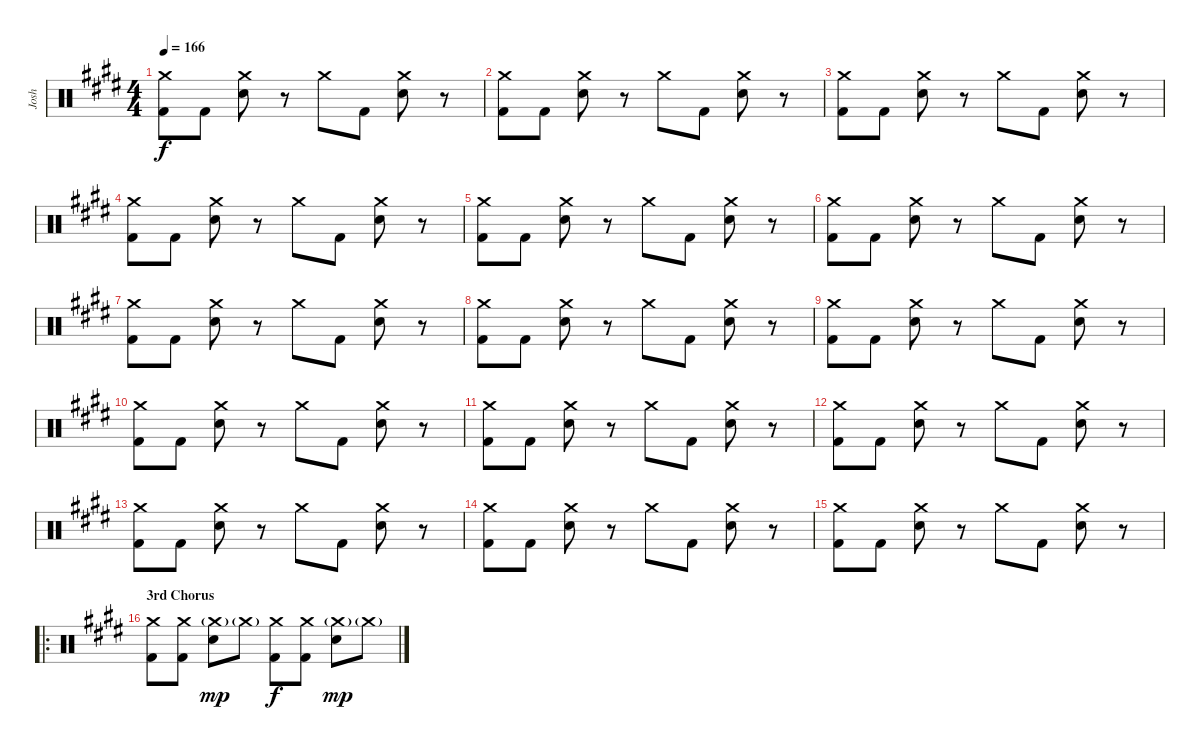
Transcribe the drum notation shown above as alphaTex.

\track ("Josh" "Josh") {instrument percussion}
\staff {score}
\articulation defaults
\ts (4 4)
\tempo 166
\clef neutral
\ks e
("Crash medium (hit)" "Kick (hit) 2").8{dy f} "Kick (hit) 2".8 ("Crash medium (hit)" "Electric Snare (hit)").8 r.8 "Crash medium (hit)".8 "Kick (hit) 2".8 ("Crash medium (hit)" "Electric Snare (hit)").8 r.8 |
("Crash medium (hit)" "Kick (hit) 2").8 "Kick (hit) 2".8 ("Crash medium (hit)" "Electric Snare (hit)").8 r.8 "Crash medium (hit)".8 "Kick (hit) 2".8 ("Crash medium (hit)" "Electric Snare (hit)").8 r.8 |
("Crash medium (hit)" "Kick (hit) 2").8 "Kick (hit) 2".8 ("Crash medium (hit)" "Electric Snare (hit)").8 r.8 "Crash medium (hit)".8 "Kick (hit) 2".8 ("Crash medium (hit)" "Electric Snare (hit)").8 r.8 |
("Crash medium (hit)" "Kick (hit) 2").8 "Kick (hit) 2".8 ("Crash medium (hit)" "Electric Snare (hit)").8 r.8 "Crash medium (hit)".8 "Kick (hit) 2".8 ("Crash medium (hit)" "Electric Snare (hit)").8 r.8 |
("Crash medium (hit)" "Kick (hit) 2").8 "Kick (hit) 2".8 ("Crash medium (hit)" "Electric Snare (hit)").8 r.8 "Crash medium (hit)".8 "Kick (hit) 2".8 ("Crash medium (hit)" "Electric Snare (hit)").8 r.8 |
("Crash medium (hit)" "Kick (hit) 2").8 "Kick (hit) 2".8 ("Crash medium (hit)" "Electric Snare (hit)").8 r.8 "Crash medium (hit)".8 "Kick (hit) 2".8 ("Crash medium (hit)" "Electric Snare (hit)").8 r.8 |
("Crash medium (hit)" "Kick (hit) 2").8 "Kick (hit) 2".8 ("Crash medium (hit)" "Electric Snare (hit)").8 r.8 "Crash medium (hit)".8 "Kick (hit) 2".8 ("Crash medium (hit)" "Electric Snare (hit)").8 r.8 |
("Crash medium (hit)" "Kick (hit) 2").8 "Kick (hit) 2".8 ("Crash medium (hit)" "Electric Snare (hit)").8 r.8 "Crash medium (hit)".8 "Kick (hit) 2".8 ("Crash medium (hit)" "Electric Snare (hit)").8 r.8 |
("Crash medium (hit)" "Kick (hit) 2").8 "Kick (hit) 2".8 ("Crash medium (hit)" "Electric Snare (hit)").8 r.8 "Crash medium (hit)".8 "Kick (hit) 2".8 ("Crash medium (hit)" "Electric Snare (hit)").8 r.8 |
("Crash medium (hit)" "Kick (hit) 2").8 "Kick (hit) 2".8 ("Crash medium (hit)" "Electric Snare (hit)").8 r.8 "Crash medium (hit)".8 "Kick (hit) 2".8 ("Crash medium (hit)" "Electric Snare (hit)").8 r.8 |
("Crash medium (hit)" "Kick (hit) 2").8 "Kick (hit) 2".8 ("Crash medium (hit)" "Electric Snare (hit)").8 r.8 "Crash medium (hit)".8 "Kick (hit) 2".8 ("Crash medium (hit)" "Electric Snare (hit)").8 r.8 |
("Crash medium (hit)" "Kick (hit) 2").8 "Kick (hit) 2".8 ("Crash medium (hit)" "Electric Snare (hit)").8 r.8 "Crash medium (hit)".8 "Kick (hit) 2".8 ("Crash medium (hit)" "Electric Snare (hit)").8 r.8 |
("Crash medium (hit)" "Kick (hit) 2").8 "Kick (hit) 2".8 ("Crash medium (hit)" "Electric Snare (hit)").8 r.8 "Crash medium (hit)".8 "Kick (hit) 2".8 ("Crash medium (hit)" "Electric Snare (hit)").8 r.8 |
("Crash medium (hit)" "Kick (hit) 2").8 "Kick (hit) 2".8 ("Crash medium (hit)" "Electric Snare (hit)").8 r.8 "Crash medium (hit)".8 "Kick (hit) 2".8 ("Crash medium (hit)" "Electric Snare (hit)").8 r.8 |
("Crash medium (hit)" "Kick (hit) 2").8 "Kick (hit) 2".8 ("Crash medium (hit)" "Electric Snare (hit)").8 r.8 "Crash medium (hit)".8 "Kick (hit) 2".8 ("Crash medium (hit)" "Electric Snare (hit)").8 r.8 |
\ro
\section ("" "3rd Chorus")
("Crash medium (hit)" "Kick (hit) 2").8 ("Crash medium (hit)" "Kick (hit) 2").8 ("Crash medium (hit)"{g} "Electric Snare (hit)").8{dy mp} "Crash medium (hit)"{g}.8 ("Crash medium (hit)" "Kick (hit) 2").8{dy f} ("Crash medium (hit)" "Kick (hit) 2").8 ("Crash medium (hit)"{g} "Electric Snare (hit)").8{dy mp} "Crash medium (hit)"{g}.8
